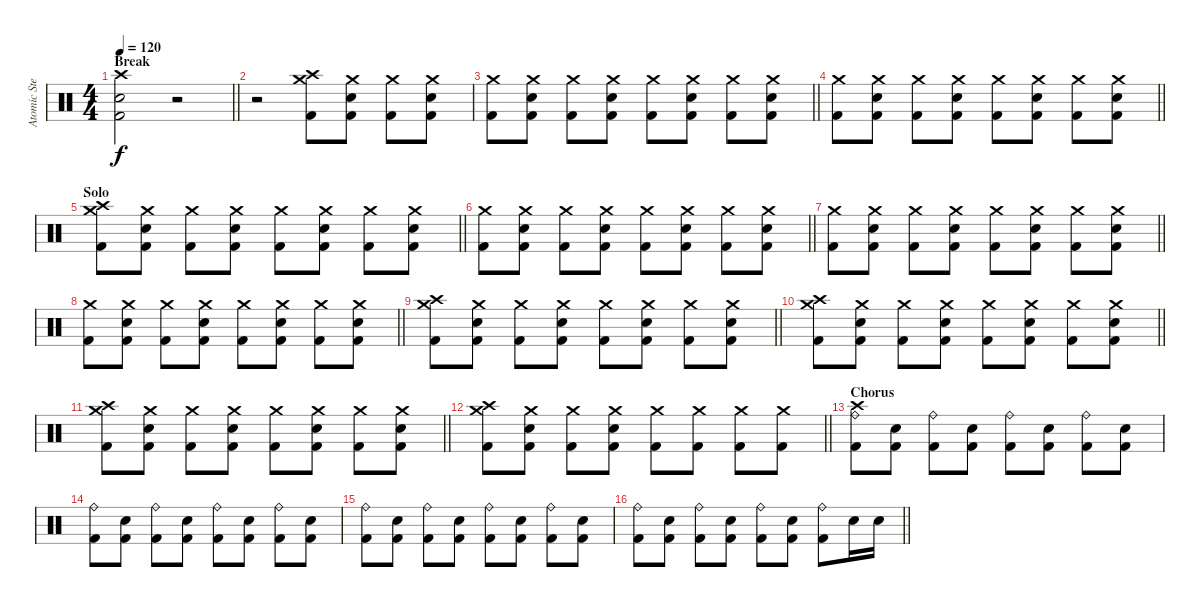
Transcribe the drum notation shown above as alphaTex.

\track ("Atomic Steif" "Atomic Ste") {instrument percussion}
\staff {score}
\articulation defaults
\ts (4 4)
\section ("" "Break")
\tempo 120
\clef neutral
\barLineRight lightlight
\ks c
("Crash high (hit)" "Electric Snare (hit)" "Kick (hit) 2").2{dy f} r.2 |
r.2 ("Crash high (hit)" "Crash medium (hit)" "Kick (hit) 2").8 ("Crash medium (hit)" "Electric Snare (hit)" "Kick (hit) 2").8 ("Crash medium (hit)" "Kick (hit) 2").8 ("Crash medium (hit)" "Electric Snare (hit)" "Kick (hit) 2").8 |
\barLineRight lightlight
("Crash medium (hit)" "Kick (hit) 2").8 ("Crash medium (hit)" "Electric Snare (hit)" "Kick (hit) 2").8 ("Crash medium (hit)" "Kick (hit) 2").8 ("Crash medium (hit)" "Electric Snare (hit)" "Kick (hit) 2").8 ("Crash medium (hit)" "Kick (hit) 2").8 ("Crash medium (hit)" "Electric Snare (hit)" "Kick (hit) 2").8 ("Crash medium (hit)" "Kick (hit) 2").8 ("Crash medium (hit)" "Electric Snare (hit)" "Kick (hit) 2").8 |
\barLineRight lightlight
("Crash medium (hit)" "Kick (hit) 2").8 ("Crash medium (hit)" "Electric Snare (hit)" "Kick (hit) 2").8 ("Crash medium (hit)" "Kick (hit) 2").8 ("Crash medium (hit)" "Electric Snare (hit)" "Kick (hit) 2").8 ("Crash medium (hit)" "Kick (hit) 2").8 ("Crash medium (hit)" "Electric Snare (hit)" "Kick (hit) 2").8 ("Crash medium (hit)" "Kick (hit) 2").8 ("Crash medium (hit)" "Electric Snare (hit)" "Kick (hit) 2").8 |
\section ("" "Solo")
\barLineRight lightlight
("Crash high (hit)" "Crash medium (hit)" "Kick (hit) 2").8 ("Crash medium (hit)" "Electric Snare (hit)" "Kick (hit) 2").8 ("Crash medium (hit)" "Kick (hit) 2").8 ("Crash medium (hit)" "Electric Snare (hit)" "Kick (hit) 2").8 ("Crash medium (hit)" "Kick (hit) 2").8 ("Crash medium (hit)" "Electric Snare (hit)" "Kick (hit) 2").8 ("Crash medium (hit)" "Kick (hit) 2").8 ("Crash medium (hit)" "Electric Snare (hit)" "Kick (hit) 2").8 |
\barLineRight lightlight
("Crash medium (hit)" "Kick (hit) 2").8 ("Crash medium (hit)" "Electric Snare (hit)" "Kick (hit) 2").8 ("Crash medium (hit)" "Kick (hit) 2").8 ("Crash medium (hit)" "Electric Snare (hit)" "Kick (hit) 2").8 ("Crash medium (hit)" "Kick (hit) 2").8 ("Crash medium (hit)" "Electric Snare (hit)" "Kick (hit) 2").8 ("Crash medium (hit)" "Kick (hit) 2").8 ("Crash medium (hit)" "Electric Snare (hit)" "Kick (hit) 2").8 |
\barLineRight lightlight
("Crash medium (hit)" "Kick (hit) 2").8 ("Crash medium (hit)" "Electric Snare (hit)" "Kick (hit) 2").8 ("Crash medium (hit)" "Kick (hit) 2").8 ("Crash medium (hit)" "Electric Snare (hit)" "Kick (hit) 2").8 ("Crash medium (hit)" "Kick (hit) 2").8 ("Crash medium (hit)" "Electric Snare (hit)" "Kick (hit) 2").8 ("Crash medium (hit)" "Kick (hit) 2").8 ("Crash medium (hit)" "Electric Snare (hit)" "Kick (hit) 2").8 |
\barLineRight lightlight
("Crash medium (hit)" "Kick (hit) 2").8 ("Crash medium (hit)" "Electric Snare (hit)" "Kick (hit) 2").8 ("Crash medium (hit)" "Kick (hit) 2").8 ("Crash medium (hit)" "Electric Snare (hit)" "Kick (hit) 2").8 ("Crash medium (hit)" "Kick (hit) 2").8 ("Crash medium (hit)" "Electric Snare (hit)" "Kick (hit) 2").8 ("Crash medium (hit)" "Kick (hit) 2").8 ("Crash medium (hit)" "Electric Snare (hit)" "Kick (hit) 2").8 |
\barLineRight lightlight
("Crash high (hit)" "Crash medium (hit)" "Kick (hit) 2").8 ("Crash medium (hit)" "Electric Snare (hit)" "Kick (hit) 2").8 ("Crash medium (hit)" "Kick (hit) 2").8 ("Crash medium (hit)" "Electric Snare (hit)" "Kick (hit) 2").8 ("Crash medium (hit)" "Kick (hit) 2").8 ("Crash medium (hit)" "Electric Snare (hit)" "Kick (hit) 2").8 ("Crash medium (hit)" "Kick (hit) 2").8 ("Crash medium (hit)" "Electric Snare (hit)" "Kick (hit) 2").8 |
\barLineRight lightlight
("Crash high (hit)" "Crash medium (hit)" "Kick (hit) 2").8 ("Crash medium (hit)" "Electric Snare (hit)" "Kick (hit) 2").8 ("Crash medium (hit)" "Kick (hit) 2").8 ("Crash medium (hit)" "Electric Snare (hit)" "Kick (hit) 2").8 ("Crash medium (hit)" "Kick (hit) 2").8 ("Crash medium (hit)" "Electric Snare (hit)" "Kick (hit) 2").8 ("Crash medium (hit)" "Kick (hit) 2").8 ("Crash medium (hit)" "Electric Snare (hit)" "Kick (hit) 2").8 |
\barLineRight lightlight
("Crash high (hit)" "Crash medium (hit)" "Kick (hit) 2").8 ("Crash medium (hit)" "Electric Snare (hit)" "Kick (hit) 2").8 ("Crash medium (hit)" "Kick (hit) 2").8 ("Crash medium (hit)" "Electric Snare (hit)" "Kick (hit) 2").8 ("Crash medium (hit)" "Kick (hit) 2").8 ("Crash medium (hit)" "Electric Snare (hit)" "Kick (hit) 2").8 ("Crash medium (hit)" "Kick (hit) 2").8 ("Crash medium (hit)" "Electric Snare (hit)" "Kick (hit) 2").8 |
\barLineRight lightlight
("Crash high (hit)" "Crash medium (hit)" "Kick (hit) 2").8 ("Crash medium (hit)" "Electric Snare (hit)" "Kick (hit) 2").8 ("Crash medium (hit)" "Kick (hit) 2").8 ("Crash medium (hit)" "Electric Snare (hit)" "Kick (hit) 2").8 ("Crash medium (hit)" "Kick (hit) 2").8 ("Crash medium (hit)" "Kick (hit) 2").8 ("Crash medium (hit)" "Kick (hit) 2").8 ("Crash medium (hit)" "Kick (hit) 2").8 |
\section ("" "Chorus")
("Crash high (hit)" "Ride (bell)" "Kick (hit) 2").8 ("Electric Snare (hit)" "Kick (hit) 2").8 ("Ride (bell)" "Kick (hit) 2").8 ("Electric Snare (hit)" "Kick (hit) 2").8 ("Ride (bell)" "Kick (hit) 2").8 ("Electric Snare (hit)" "Kick (hit) 2").8 ("Ride (bell)" "Kick (hit) 2").8 ("Electric Snare (hit)" "Kick (hit) 2").8 |
("Ride (bell)" "Kick (hit) 2").8 ("Electric Snare (hit)" "Kick (hit) 2").8 ("Ride (bell)" "Kick (hit) 2").8 ("Electric Snare (hit)" "Kick (hit) 2").8 ("Ride (bell)" "Kick (hit) 2").8 ("Electric Snare (hit)" "Kick (hit) 2").8 ("Ride (bell)" "Kick (hit) 2").8 ("Electric Snare (hit)" "Kick (hit) 2").8 |
("Ride (bell)" "Kick (hit) 2").8 ("Electric Snare (hit)" "Kick (hit) 2").8 ("Ride (bell)" "Kick (hit) 2").8 ("Electric Snare (hit)" "Kick (hit) 2").8 ("Ride (bell)" "Kick (hit) 2").8 ("Electric Snare (hit)" "Kick (hit) 2").8 ("Ride (bell)" "Kick (hit) 2").8 ("Electric Snare (hit)" "Kick (hit) 2").8 |
\barLineRight lightlight
("Ride (bell)" "Kick (hit) 2").8 ("Electric Snare (hit)" "Kick (hit) 2").8 ("Ride (bell)" "Kick (hit) 2").8 ("Electric Snare (hit)" "Kick (hit) 2").8 ("Ride (bell)" "Kick (hit) 2").8 ("Electric Snare (hit)" "Kick (hit) 2").8 ("Ride (bell)" "Kick (hit) 2").8 "Electric Snare (hit)".16 "Electric Snare (hit)".16
